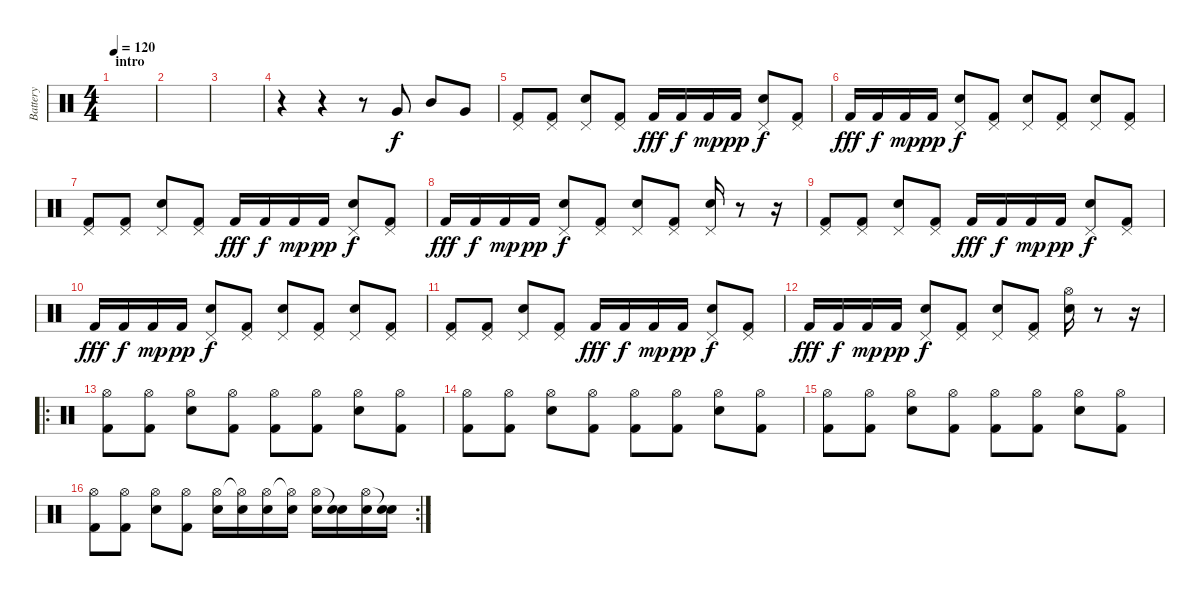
\track ("Battery" "Battery") {instrument percussion}
\staff {score}
\articulation defaults
\ts (4 4)
\section ("" "intro")
\tempo 120
\clef neutral
\ks c
|
|
|
r.4 r.4 r.8 "Very Low Tom (hit)".8 "Mid Tom (hit)".8 "Very Low Tom (hit)".8 |
("Pedal Hi-Hat (hit)" "Kick (hit) 2").8{dy f} ("Pedal Hi-Hat (hit)" "Kick (hit) 2").8 ("Pedal Hi-Hat (hit)" "Electric Snare (hit)").8 ("Pedal Hi-Hat (hit)" "Kick (hit) 2").8 "Kick (hit) 2".16{dy fff} "Kick (hit) 2".16{dy f} "Kick (hit) 2".16{dy mp} "Kick (hit) 2".16{dy pp} ("Pedal Hi-Hat (hit)" "Electric Snare (hit)").8{dy f} ("Pedal Hi-Hat (hit)" "Kick (hit) 2").8 |
"Kick (hit) 2".16{dy fff} "Kick (hit) 2".16{dy f} "Kick (hit) 2".16{dy mp} "Kick (hit) 2".16{dy pp} ("Pedal Hi-Hat (hit)" "Electric Snare (hit)").8{dy f} ("Pedal Hi-Hat (hit)" "Kick (hit) 2").8 ("Pedal Hi-Hat (hit)" "Electric Snare (hit)").8 ("Pedal Hi-Hat (hit)" "Kick (hit) 2").8 ("Pedal Hi-Hat (hit)" "Electric Snare (hit)").8 ("Pedal Hi-Hat (hit)" "Kick (hit) 2").8 |
("Pedal Hi-Hat (hit)" "Kick (hit) 2").8 ("Pedal Hi-Hat (hit)" "Kick (hit) 2").8 ("Pedal Hi-Hat (hit)" "Electric Snare (hit)").8 ("Pedal Hi-Hat (hit)" "Kick (hit) 2").8 "Kick (hit) 2".16{dy fff} "Kick (hit) 2".16{dy f} "Kick (hit) 2".16{dy mp} "Kick (hit) 2".16{dy pp} ("Pedal Hi-Hat (hit)" "Electric Snare (hit)").8{dy f} ("Pedal Hi-Hat (hit)" "Kick (hit) 2").8 |
"Kick (hit) 2".16{dy fff} "Kick (hit) 2".16{dy f} "Kick (hit) 2".16{dy mp} "Kick (hit) 2".16{dy pp} ("Pedal Hi-Hat (hit)" "Electric Snare (hit)").8{dy f} ("Pedal Hi-Hat (hit)" "Kick (hit) 2").8 ("Pedal Hi-Hat (hit)" "Electric Snare (hit)").8 ("Pedal Hi-Hat (hit)" "Kick (hit) 2").8 ("Pedal Hi-Hat (hit)" "Electric Snare (hit)").16 r.8 r.16 |
("Pedal Hi-Hat (hit)" "Kick (hit) 2").8 ("Pedal Hi-Hat (hit)" "Kick (hit) 2").8 ("Pedal Hi-Hat (hit)" "Electric Snare (hit)").8 ("Pedal Hi-Hat (hit)" "Kick (hit) 2").8 "Kick (hit) 2".16{dy fff} "Kick (hit) 2".16{dy f} "Kick (hit) 2".16{dy mp} "Kick (hit) 2".16{dy pp} ("Pedal Hi-Hat (hit)" "Electric Snare (hit)").8{dy f} ("Pedal Hi-Hat (hit)" "Kick (hit) 2").8 |
"Kick (hit) 2".16{dy fff} "Kick (hit) 2".16{dy f} "Kick (hit) 2".16{dy mp} "Kick (hit) 2".16{dy pp} ("Pedal Hi-Hat (hit)" "Electric Snare (hit)").8{dy f} ("Pedal Hi-Hat (hit)" "Kick (hit) 2").8 ("Pedal Hi-Hat (hit)" "Electric Snare (hit)").8 ("Pedal Hi-Hat (hit)" "Kick (hit) 2").8 ("Pedal Hi-Hat (hit)" "Electric Snare (hit)").8 ("Pedal Hi-Hat (hit)" "Kick (hit) 2").8 |
("Pedal Hi-Hat (hit)" "Kick (hit) 2").8 ("Pedal Hi-Hat (hit)" "Kick (hit) 2").8 ("Pedal Hi-Hat (hit)" "Electric Snare (hit)").8 ("Pedal Hi-Hat (hit)" "Kick (hit) 2").8 "Kick (hit) 2".16{dy fff} "Kick (hit) 2".16{dy f} "Kick (hit) 2".16{dy mp} "Kick (hit) 2".16{dy pp} ("Pedal Hi-Hat (hit)" "Electric Snare (hit)").8{dy f} ("Pedal Hi-Hat (hit)" "Kick (hit) 2").8 |
"Kick (hit) 2".16{dy fff} "Kick (hit) 2".16{dy f} "Kick (hit) 2".16{dy mp} "Kick (hit) 2".16{dy pp} ("Pedal Hi-Hat (hit)" "Electric Snare (hit)").8{dy f} ("Pedal Hi-Hat (hit)" "Kick (hit) 2").8 ("Pedal Hi-Hat (hit)" "Electric Snare (hit)").8 ("Pedal Hi-Hat (hit)" "Kick (hit) 2").8 ("Hi-Hat (open)" "Electric Snare (hit)").16 r.8 r.16 |
\ro
("Hi-Hat (open)" "Kick (hit) 2").8 ("Hi-Hat (open)" "Kick (hit) 2").8 ("Hi-Hat (open)" "Electric Snare (hit)").8 ("Hi-Hat (open)" "Kick (hit) 2").8 ("Hi-Hat (open)" "Kick (hit) 2").8 ("Hi-Hat (open)" "Kick (hit) 2").8 ("Hi-Hat (open)" "Electric Snare (hit)").8 ("Hi-Hat (open)" "Kick (hit) 2").8 |
("Hi-Hat (open)" "Kick (hit) 2").8 ("Hi-Hat (open)" "Kick (hit) 2").8 ("Hi-Hat (open)" "Electric Snare (hit)").8 ("Hi-Hat (open)" "Kick (hit) 2").8 ("Hi-Hat (open)" "Kick (hit) 2").8 ("Hi-Hat (open)" "Kick (hit) 2").8 ("Hi-Hat (open)" "Electric Snare (hit)").8 ("Hi-Hat (open)" "Kick (hit) 2").8 |
("Hi-Hat (open)" "Kick (hit) 2").8 ("Hi-Hat (open)" "Kick (hit) 2").8 ("Hi-Hat (open)" "Electric Snare (hit)").8 ("Hi-Hat (open)" "Kick (hit) 2").8 ("Hi-Hat (open)" "Kick (hit) 2").8 ("Hi-Hat (open)" "Kick (hit) 2").8 ("Hi-Hat (open)" "Electric Snare (hit)").8 ("Hi-Hat (open)" "Kick (hit) 2").8 |
\rc 2
("Hi-Hat (open)" "Kick (hit) 2").8 ("Hi-Hat (open)" "Kick (hit) 2").8 ("Hi-Hat (open)" "Electric Snare (hit)").8 ("Hi-Hat (open)" "Kick (hit) 2").8 ("Hi-Hat (open)" "Electric Snare (hit)").16 ("Hi-Hat (open)"{t} "Electric Snare (hit)").16 ("Hi-Hat (open)" "Electric Snare (hit)").16 ("Hi-Hat (open)"{t} "Electric Snare (hit)").16 ("Hi-Hat (open)" "Electric Snare (hit)").16 ("Snare (hit)"{t} "Electric Snare (hit)").16 ("Hi-Hat (open)" "Electric Snare (hit)").16 ("Snare (hit)"{t} "Electric Snare (hit)").16
